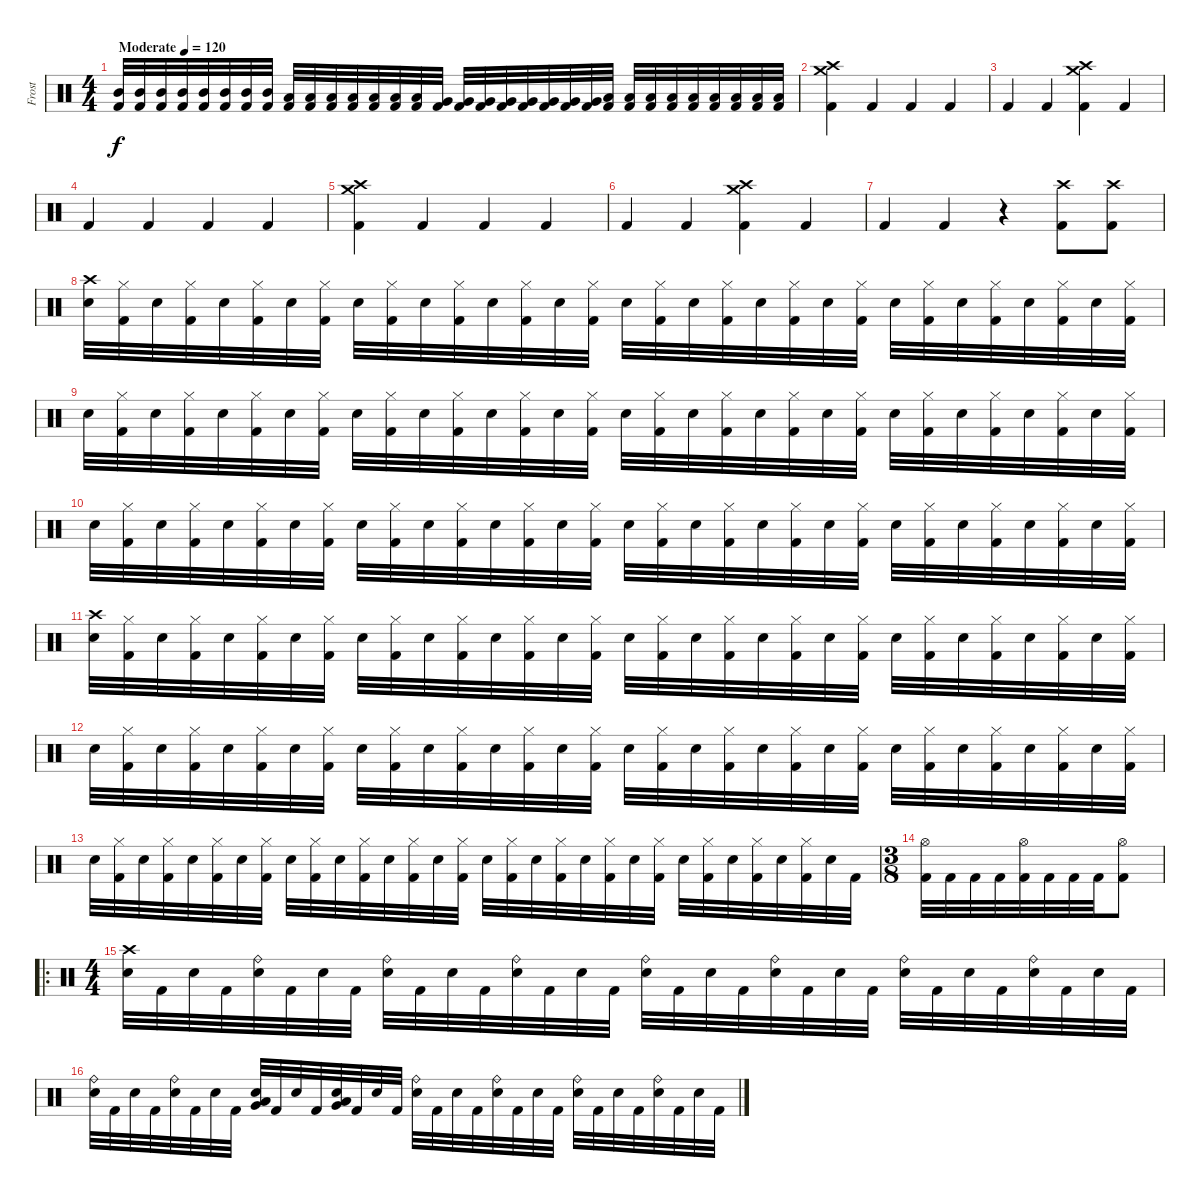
\track ("Frost" "Frost") {instrument percussion}
\staff {score}
\articulation defaults
\ts (4 4)
\tempo (120 "Moderate")
\clef neutral
\ks c
("Mid Tom (hit)" "Kick (hit) 2").32{dy f} ("Mid Tom (hit)" "Kick (hit) 2").32 ("Mid Tom (hit)" "Kick (hit) 2").32 ("Mid Tom (hit)" "Kick (hit) 2").32 ("Mid Tom (hit)" "Kick (hit) 2").32 ("Mid Tom (hit)" "Kick (hit) 2").32 ("Mid Tom (hit)" "Kick (hit) 2").32 ("Mid Tom (hit)" "Kick (hit) 2").32 ("Low Tom (hit)" "Kick (hit) 2").32 ("Low Tom (hit)" "Kick (hit) 2").32 ("Low Tom (hit)" "Kick (hit) 2").32 ("Low Tom (hit)" "Kick (hit) 2").32 ("Low Tom (hit)" "Kick (hit) 2").32 ("Low Tom (hit)" "Kick (hit) 2").32 ("Low Tom (hit)" "Kick (hit) 2").32 ("Very Low Tom (hit)" "Kick (hit) 2").32 ("Very Low Tom (hit)" "Kick (hit) 2").32 ("Very Low Tom (hit)" "Kick (hit) 2").32 ("Very Low Tom (hit)" "Kick (hit) 2").32 ("Very Low Tom (hit)" "Kick (hit) 2").32 ("Very Low Tom (hit)" "Kick (hit) 2").32 ("Very Low Tom (hit)" "Kick (hit) 2").32 ("Very Low Tom (hit)" "Kick (hit) 2").32 ("Low Floor Tom (hit)" "Kick (hit) 2").32 ("Low Floor Tom (hit)" "Kick (hit) 2").32 ("Low Floor Tom (hit)" "Kick (hit) 2").32 ("Low Floor Tom (hit)" "Kick (hit) 2").32 ("Low Floor Tom (hit)" "Kick (hit) 2").32 ("Low Floor Tom (hit)" "Kick (hit) 2").32 ("Low Floor Tom (hit)" "Kick (hit) 2").32 ("Low Floor Tom (hit)" "Kick (hit) 2").32 ("Low Floor Tom (hit)" "Kick (hit) 2").32 |
("Crash medium (hit)" "Crash high (hit)" "Kick (hit) 2").4 "Kick (hit) 2".4 "Kick (hit) 2".4 "Kick (hit) 2".4 |
"Kick (hit) 2".4 "Kick (hit) 2".4 ("Crash medium (hit)" "Crash high (hit)" "Kick (hit) 2").4 "Kick (hit) 2".4 |
"Kick (hit) 2".4 "Kick (hit) 2".4 "Kick (hit) 2".4 "Kick (hit) 2".4 |
("Crash medium (hit)" "Crash high (hit)" "Kick (hit) 2").4 "Kick (hit) 2".4 "Kick (hit) 2".4 "Kick (hit) 2".4 |
"Kick (hit) 2".4 "Kick (hit) 2".4 ("Crash medium (hit)" "Crash high (hit)" "Kick (hit) 2").4 "Kick (hit) 2".4 |
"Kick (hit) 2".4 "Kick (hit) 2".4 r.4 ("Crash high (hit)" "Kick (hit) 2").8 ("Crash high (hit)" "Kick (hit) 2").8 |
("Crash high (hit)" "Snare (hit) 2").32 ("Hi-Hat (closed)" "Kick (hit) 2").32 "Snare (hit) 2".32 ("Hi-Hat (closed)" "Kick (hit) 2").32 "Snare (hit) 2".32 ("Hi-Hat (closed)" "Kick (hit) 2").32 "Snare (hit) 2".32 ("Hi-Hat (closed)" "Kick (hit) 2").32 "Snare (hit) 2".32 ("Hi-Hat (closed)" "Kick (hit) 2").32 "Snare (hit) 2".32 ("Hi-Hat (closed)" "Kick (hit) 2").32 "Snare (hit) 2".32 ("Hi-Hat (closed)" "Kick (hit) 2").32 "Snare (hit) 2".32 ("Hi-Hat (closed)" "Kick (hit) 2").32 "Snare (hit) 2".32 ("Hi-Hat (closed)" "Kick (hit) 2").32 "Snare (hit) 2".32 ("Hi-Hat (closed)" "Kick (hit) 2").32 "Snare (hit) 2".32 ("Hi-Hat (closed)" "Kick (hit) 2").32 "Snare (hit) 2".32 ("Hi-Hat (closed)" "Kick (hit) 2").32 "Snare (hit) 2".32 ("Hi-Hat (closed)" "Kick (hit) 2").32 "Snare (hit) 2".32 ("Hi-Hat (closed)" "Kick (hit) 2").32 "Snare (hit) 2".32 ("Hi-Hat (closed)" "Kick (hit) 2").32 "Snare (hit) 2".32 ("Hi-Hat (closed)" "Kick (hit) 2").32 |
"Snare (hit) 2".32 ("Hi-Hat (closed)" "Kick (hit) 2").32 "Snare (hit) 2".32 ("Hi-Hat (closed)" "Kick (hit) 2").32 "Snare (hit) 2".32 ("Hi-Hat (closed)" "Kick (hit) 2").32 "Snare (hit) 2".32 ("Hi-Hat (closed)" "Kick (hit) 2").32 "Snare (hit) 2".32 ("Hi-Hat (closed)" "Kick (hit) 2").32 "Snare (hit) 2".32 ("Hi-Hat (closed)" "Kick (hit) 2").32 "Snare (hit) 2".32 ("Hi-Hat (closed)" "Kick (hit) 2").32 "Snare (hit) 2".32 ("Hi-Hat (closed)" "Kick (hit) 2").32 "Snare (hit) 2".32 ("Hi-Hat (closed)" "Kick (hit) 2").32 "Snare (hit) 2".32 ("Hi-Hat (closed)" "Kick (hit) 2").32 "Snare (hit) 2".32 ("Hi-Hat (closed)" "Kick (hit) 2").32 "Snare (hit) 2".32 ("Hi-Hat (closed)" "Kick (hit) 2").32 "Snare (hit) 2".32 ("Hi-Hat (closed)" "Kick (hit) 2").32 "Snare (hit) 2".32 ("Hi-Hat (closed)" "Kick (hit) 2").32 "Snare (hit) 2".32 ("Hi-Hat (closed)" "Kick (hit) 2").32 "Snare (hit) 2".32 ("Hi-Hat (closed)" "Kick (hit) 2").32 |
"Snare (hit) 2".32 ("Hi-Hat (closed)" "Kick (hit) 2").32 "Snare (hit) 2".32 ("Hi-Hat (closed)" "Kick (hit) 2").32 "Snare (hit) 2".32 ("Hi-Hat (closed)" "Kick (hit) 2").32 "Snare (hit) 2".32 ("Hi-Hat (closed)" "Kick (hit) 2").32 "Snare (hit) 2".32 ("Hi-Hat (closed)" "Kick (hit) 2").32 "Snare (hit) 2".32 ("Hi-Hat (closed)" "Kick (hit) 2").32 "Snare (hit) 2".32 ("Hi-Hat (closed)" "Kick (hit) 2").32 "Snare (hit) 2".32 ("Hi-Hat (closed)" "Kick (hit) 2").32 "Snare (hit) 2".32 ("Hi-Hat (closed)" "Kick (hit) 2").32 "Snare (hit) 2".32 ("Hi-Hat (closed)" "Kick (hit) 2").32 "Snare (hit) 2".32 ("Hi-Hat (closed)" "Kick (hit) 2").32 "Snare (hit) 2".32 ("Hi-Hat (closed)" "Kick (hit) 2").32 "Snare (hit) 2".32 ("Hi-Hat (closed)" "Kick (hit) 2").32 "Snare (hit) 2".32 ("Hi-Hat (closed)" "Kick (hit) 2").32 "Snare (hit) 2".32 ("Hi-Hat (closed)" "Kick (hit) 2").32 "Snare (hit) 2".32 ("Hi-Hat (closed)" "Kick (hit) 2").32 |
("Crash high (hit)" "Snare (hit) 2").32 ("Hi-Hat (closed)" "Kick (hit) 2").32 "Snare (hit) 2".32 ("Hi-Hat (closed)" "Kick (hit) 2").32 "Snare (hit) 2".32 ("Hi-Hat (closed)" "Kick (hit) 2").32 "Snare (hit) 2".32 ("Hi-Hat (closed)" "Kick (hit) 2").32 "Snare (hit) 2".32 ("Hi-Hat (closed)" "Kick (hit) 2").32 "Snare (hit) 2".32 ("Hi-Hat (closed)" "Kick (hit) 2").32 "Snare (hit) 2".32 ("Hi-Hat (closed)" "Kick (hit) 2").32 "Snare (hit) 2".32 ("Hi-Hat (closed)" "Kick (hit) 2").32 "Snare (hit) 2".32 ("Hi-Hat (closed)" "Kick (hit) 2").32 "Snare (hit) 2".32 ("Hi-Hat (closed)" "Kick (hit) 2").32 "Snare (hit) 2".32 ("Hi-Hat (closed)" "Kick (hit) 2").32 "Snare (hit) 2".32 ("Hi-Hat (closed)" "Kick (hit) 2").32 "Snare (hit) 2".32 ("Hi-Hat (closed)" "Kick (hit) 2").32 "Snare (hit) 2".32 ("Hi-Hat (closed)" "Kick (hit) 2").32 "Snare (hit) 2".32 ("Hi-Hat (closed)" "Kick (hit) 2").32 "Snare (hit) 2".32 ("Hi-Hat (closed)" "Kick (hit) 2").32 |
"Snare (hit) 2".32 ("Hi-Hat (closed)" "Kick (hit) 2").32 "Snare (hit) 2".32 ("Hi-Hat (closed)" "Kick (hit) 2").32 "Snare (hit) 2".32 ("Hi-Hat (closed)" "Kick (hit) 2").32 "Snare (hit) 2".32 ("Hi-Hat (closed)" "Kick (hit) 2").32 "Snare (hit) 2".32 ("Hi-Hat (closed)" "Kick (hit) 2").32 "Snare (hit) 2".32 ("Hi-Hat (closed)" "Kick (hit) 2").32 "Snare (hit) 2".32 ("Hi-Hat (closed)" "Kick (hit) 2").32 "Snare (hit) 2".32 ("Hi-Hat (closed)" "Kick (hit) 2").32 "Snare (hit) 2".32 ("Hi-Hat (closed)" "Kick (hit) 2").32 "Snare (hit) 2".32 ("Hi-Hat (closed)" "Kick (hit) 2").32 "Snare (hit) 2".32 ("Hi-Hat (closed)" "Kick (hit) 2").32 "Snare (hit) 2".32 ("Hi-Hat (closed)" "Kick (hit) 2").32 "Snare (hit) 2".32 ("Hi-Hat (closed)" "Kick (hit) 2").32 "Snare (hit) 2".32 ("Hi-Hat (closed)" "Kick (hit) 2").32 "Snare (hit) 2".32 ("Hi-Hat (closed)" "Kick (hit) 2").32 "Snare (hit) 2".32 ("Hi-Hat (closed)" "Kick (hit) 2").32 |
"Snare (hit) 2".32 ("Hi-Hat (closed)" "Kick (hit) 2").32 "Snare (hit) 2".32 ("Hi-Hat (closed)" "Kick (hit) 2").32 "Snare (hit) 2".32 ("Hi-Hat (closed)" "Kick (hit) 2").32 "Snare (hit) 2".32 ("Hi-Hat (closed)" "Kick (hit) 2").32 "Snare (hit) 2".32 ("Hi-Hat (closed)" "Kick (hit) 2").32 "Snare (hit) 2".32 ("Hi-Hat (closed)" "Kick (hit) 2").32 "Snare (hit) 2".32 ("Hi-Hat (closed)" "Kick (hit) 2").32 "Snare (hit) 2".32 ("Hi-Hat (closed)" "Kick (hit) 2").32 "Snare (hit) 2".32 ("Hi-Hat (closed)" "Kick (hit) 2").32 "Snare (hit) 2".32 ("Hi-Hat (closed)" "Kick (hit) 2").32 "Snare (hit) 2".32 ("Hi-Hat (closed)" "Kick (hit) 2").32 "Snare (hit) 2".32 ("Hi-Hat (closed)" "Kick (hit) 2").32 "Snare (hit) 2".32 ("Hi-Hat (closed)" "Kick (hit) 2").32 "Snare (hit) 2".32 ("Hi-Hat (closed)" "Kick (hit) 2").32 "Snare (hit) 2".32 ("Hi-Hat (closed)" "Kick (hit) 2").32 "Snare (hit) 2".32 "Kick (hit) 2".32 |
\ts (3 8)
("Hi-Hat (open)" "Kick (hit) 2").32 "Kick (hit) 2".32 "Kick (hit) 2".32 "Kick (hit) 2".32 ("Hi-Hat (open)" "Kick (hit) 2").32 "Kick (hit) 2".32 "Kick (hit) 2".32 "Kick (hit) 2".32 ("Hi-Hat (open)" "Kick (hit) 2").8 |
\ro
\ts (4 4)
("Crash high (hit)" "Snare (hit) 2").32 "Kick (hit) 2".32 "Snare (hit) 2".32 "Kick (hit) 2".32 ("Ride (bell)" "Snare (hit) 2").32 "Kick (hit) 2".32 "Snare (hit) 2".32 "Kick (hit) 2".32 ("Ride (bell)" "Snare (hit) 2").32 "Kick (hit) 2".32 "Snare (hit) 2".32 "Kick (hit) 2".32 ("Ride (bell)" "Snare (hit) 2").32 "Kick (hit) 2".32 "Snare (hit) 2".32 "Kick (hit) 2".32 ("Ride (bell)" "Snare (hit) 2").32 "Kick (hit) 2".32 "Snare (hit) 2".32 "Kick (hit) 2".32 ("Ride (bell)" "Snare (hit) 2").32 "Kick (hit) 2".32 "Snare (hit) 2".32 "Kick (hit) 2".32 ("Ride (bell)" "Snare (hit) 2").32 "Kick (hit) 2".32 "Snare (hit) 2".32 "Kick (hit) 2".32 ("Ride (bell)" "Snare (hit) 2").32 "Kick (hit) 2".32 "Snare (hit) 2".32 "Kick (hit) 2".32 |
("Ride (bell)" "Snare (hit) 2").32 "Kick (hit) 2".32 "Snare (hit) 2".32 "Kick (hit) 2".32 ("Ride (bell)" "Snare (hit) 2").32 "Kick (hit) 2".32 "Snare (hit) 2".32 "Kick (hit) 2".32 ("Low Tom (hit)" "Very Low Tom (hit)" "Snare (hit) 2").32 "Kick (hit) 2".32 "Snare (hit) 2".32 "Kick (hit) 2".32 ("Low Tom (hit)" "Very Low Tom (hit)" "Snare (hit) 2").32 "Kick (hit) 2".32 "Snare (hit) 2".32 "Kick (hit) 2".32 ("Ride (bell)" "Snare (hit) 2").32 "Kick (hit) 2".32 "Snare (hit) 2".32 "Kick (hit) 2".32 ("Ride (bell)" "Snare (hit) 2").32 "Kick (hit) 2".32 "Snare (hit) 2".32 "Kick (hit) 2".32 ("Ride (bell)" "Snare (hit) 2").32 "Kick (hit) 2".32 "Snare (hit) 2".32 "Kick (hit) 2".32 ("Ride (bell)" "Snare (hit) 2").32 "Kick (hit) 2".32 "Snare (hit) 2".32 "Kick (hit) 2".32
